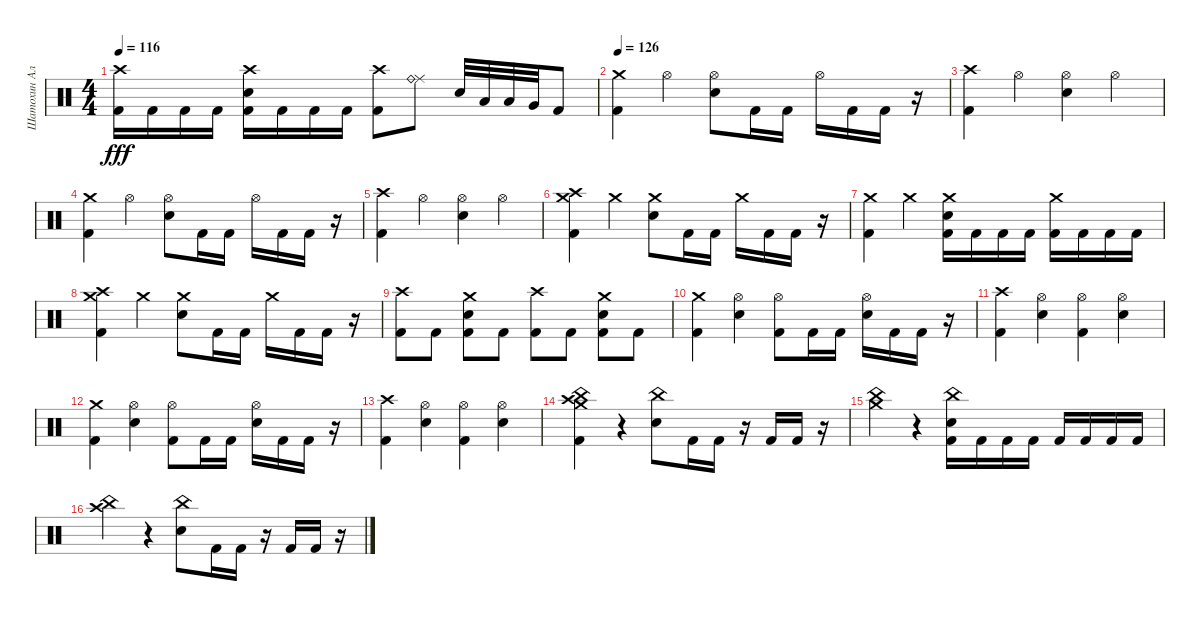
\track ("Шатохин Алексей" "Шатохин Ал") {instrument percussion}
\staff {score}
\articulation defaults
\ts (4 4)
\tempo 116
\clef neutral
\ks c
("Crash high (hit)" "Kick (hit) 2").16{dy fff} "Kick (hit) 2".16 "Kick (hit) 2".16 "Kick (hit) 2".16 ("Crash high (hit)" "Electric Snare (hit)" "Kick (hit) 2").16 "Kick (hit) 2".16 "Kick (hit) 2".16 "Kick (hit) 2".16 ("Crash high (hit)" "Kick (hit) 2").8 ("Ride (middle)" "Ride (bell)").8 "Electric Snare (hit)".32 "Low Tom (hit)".32 "Low Floor Tom (hit)".32 "Very Low Tom (hit)".32 "Kick (hit) 2".8 |
\tempo 126
("Crash medium (hit)" "Kick (hit) 2").4 "Hi-Hat (open)".4 ("Hi-Hat (open)" "Electric Snare (hit)").8 "Kick (hit) 2".16 "Kick (hit) 2".16 "Hi-Hat (open)".16 "Kick (hit) 2".16 "Kick (hit) 2".16 r.16 |
("Crash high (hit)" "Kick (hit) 2").4 "Hi-Hat (open)".4 ("Hi-Hat (open)" "Electric Snare (hit)").4 "Hi-Hat (open)".4 |
("Crash medium (hit)" "Kick (hit) 2").4 "Hi-Hat (open)".4 ("Hi-Hat (open)" "Electric Snare (hit)").8 "Kick (hit) 2".16 "Kick (hit) 2".16 "Hi-Hat (open)".16 "Kick (hit) 2".16 "Kick (hit) 2".16 r.16 |
("Crash high (hit)" "Kick (hit) 2").4 "Hi-Hat (open)".4 ("Hi-Hat (open)" "Electric Snare (hit)").4 "Hi-Hat (open)".4 |
("Crash high (hit)" "Crash medium (hit)" "Kick (hit) 2").4 "Crash medium (hit)".4 ("Crash medium (hit)" "Electric Snare (hit)").8 "Kick (hit) 2".16 "Kick (hit) 2".16 "Crash medium (hit)".16 "Kick (hit) 2".16 "Kick (hit) 2".16 r.16 |
("Crash medium (hit)" "Kick (hit) 2").4 "Crash medium (hit)".4 ("Crash medium (hit)" "Electric Snare (hit)" "Kick (hit) 2").16 "Kick (hit) 2".16 "Kick (hit) 2".16 "Kick (hit) 2".16 ("Crash medium (hit)" "Kick (hit) 2").16 "Kick (hit) 2".16 "Kick (hit) 2".16 "Kick (hit) 2".16 |
("Crash high (hit)" "Crash medium (hit)" "Kick (hit) 2").4 "Crash medium (hit)".4 ("Crash medium (hit)" "Electric Snare (hit)").8 "Kick (hit) 2".16 "Kick (hit) 2".16 "Crash medium (hit)".16 "Kick (hit) 2".16 "Kick (hit) 2".16 r.16 |
("Crash high (hit)" "Kick (hit) 2").8 "Kick (hit) 2".8 ("Crash medium (hit)" "Electric Snare (hit)" "Kick (hit) 2").8 "Kick (hit) 2".8 ("Crash high (hit)" "Kick (hit) 2").8 "Kick (hit) 2".8 ("Crash medium (hit)" "Electric Snare (hit)" "Kick (hit) 2").8 "Kick (hit) 2".8 |
("Crash medium (hit)" "Kick (hit) 2").4 ("Hi-Hat (open)" "Electric Snare (hit)").4 ("Hi-Hat (open)" "Kick (hit) 2").8 "Kick (hit) 2".16 "Kick (hit) 2".16 ("Hi-Hat (open)" "Electric Snare (hit)").16 "Kick (hit) 2".16 "Kick (hit) 2".16 r.16 |
("Crash high (hit)" "Kick (hit) 2").4 ("Hi-Hat (open)" "Electric Snare (hit)").4 ("Hi-Hat (open)" "Kick (hit) 2").4 ("Hi-Hat (open)" "Electric Snare (hit)").4 |
("Crash medium (hit)" "Kick (hit) 2").4 ("Hi-Hat (open)" "Electric Snare (hit)").4 ("Hi-Hat (open)" "Kick (hit) 2").8 "Kick (hit) 2".16 "Kick (hit) 2".16 ("Hi-Hat (open)" "Electric Snare (hit)").16 "Kick (hit) 2".16 "Kick (hit) 2".16 r.16 |
("Crash high (hit)" "Kick (hit) 2").4 ("Hi-Hat (open)" "Electric Snare (hit)").4 ("Hi-Hat (open)" "Kick (hit) 2").4 ("Hi-Hat (open)" "Electric Snare (hit)").4 |
("Crash high (hit)" "Crash medium (hit)" "China (hit)" "Kick (hit) 2").4 r.4 ("China (hit)" "Electric Snare (hit)").8 "Kick (hit) 2".16 "Kick (hit) 2".16 r.16 "Kick (hit) 2".16 "Kick (hit) 2".16 r.16 |
("China (hit)" "Crash medium (hit)").4 r.4 ("China (hit)" "Electric Snare (hit)" "Kick (hit) 2").16 "Kick (hit) 2".16 "Kick (hit) 2".16 "Kick (hit) 2".16 "Kick (hit) 2".16 "Kick (hit) 2".16 "Kick (hit) 2".16 "Kick (hit) 2".16 |
("Crash high (hit)" "China (hit)").4 r.4 ("China (hit)" "Electric Snare (hit)").8 "Kick (hit) 2".16 "Kick (hit) 2".16 r.16 "Kick (hit) 2".16 "Kick (hit) 2".16 r.16
